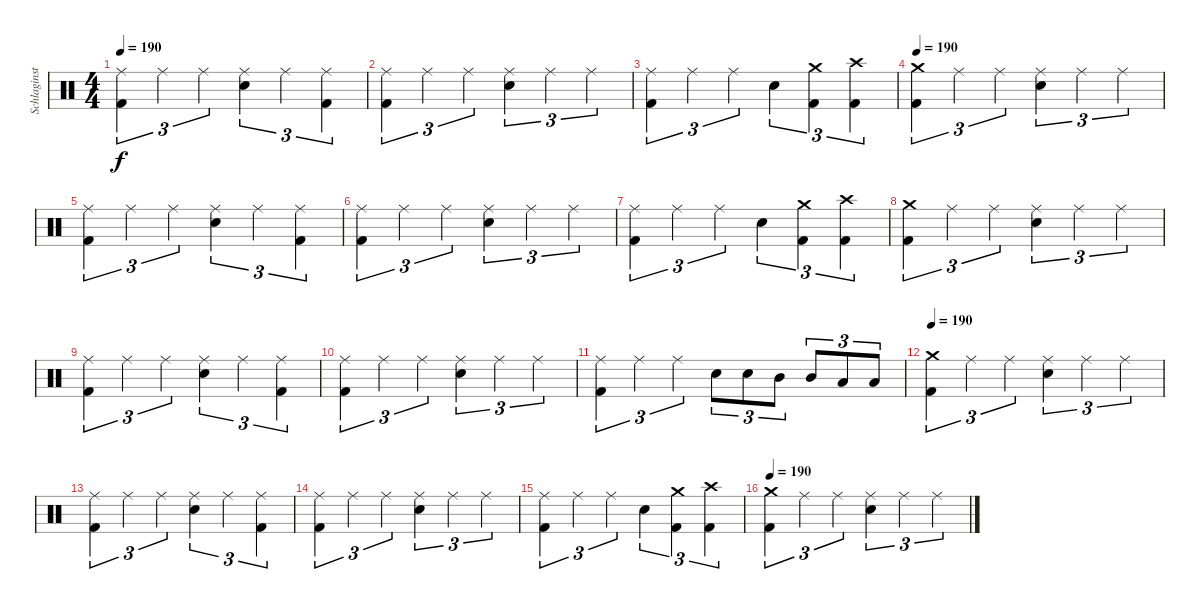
\track ("Schlaginstrumente - Auswahl" "Schlaginst") {instrument percussion}
\staff {score}
\articulation defaults
\ts (4 4)
\tempo 190
\clef neutral
\ks c
("Ride (middle)" "Kick (hit) 2").4{tu (3 2) dy f} "Ride (middle)".4{tu (3 2)} "Ride (middle)".4{tu (3 2)} ("Ride (middle)" "Electric Snare (hit)").4{tu (3 2)} "Ride (middle)".4{tu (3 2)} ("Ride (middle)" "Kick (hit) 2").4{tu (3 2)} |
("Ride (middle)" "Kick (hit) 2").4{tu (3 2)} "Ride (middle)".4{tu (3 2)} "Ride (middle)".4{tu (3 2)} ("Ride (middle)" "Electric Snare (hit)").4{tu (3 2)} "Ride (middle)".4{tu (3 2)} "Ride (middle)".4{tu (3 2)} |
("Ride (middle)" "Kick (hit) 2").4{tu (3 2)} "Ride (middle)".4{tu (3 2)} "Ride (middle)".4{tu (3 2)} "Electric Snare (hit)".4{tu (3 2)} ("Crash medium (hit)" "Kick (hit) 2").4{tu (3 2)} ("Crash high (hit)" "Kick (hit) 2").4{tu (3 2)} |
\tempo 190
("Crash medium (hit)" "Kick (hit) 2").4{tu (3 2)} "Ride (middle)".4{tu (3 2)} "Ride (middle)".4{tu (3 2)} ("Ride (middle)" "Electric Snare (hit)").4{tu (3 2)} "Ride (middle)".4{tu (3 2)} "Ride (middle)".4{tu (3 2)} |
("Ride (middle)" "Kick (hit) 2").4{tu (3 2)} "Ride (middle)".4{tu (3 2)} "Ride (middle)".4{tu (3 2)} ("Ride (middle)" "Electric Snare (hit)").4{tu (3 2)} "Ride (middle)".4{tu (3 2)} ("Ride (middle)" "Kick (hit) 2").4{tu (3 2)} |
("Ride (middle)" "Kick (hit) 2").4{tu (3 2)} "Ride (middle)".4{tu (3 2)} "Ride (middle)".4{tu (3 2)} ("Ride (middle)" "Electric Snare (hit)").4{tu (3 2)} "Ride (middle)".4{tu (3 2)} "Ride (middle)".4{tu (3 2)} |
("Ride (middle)" "Kick (hit) 2").4{tu (3 2)} "Ride (middle)".4{tu (3 2)} "Ride (middle)".4{tu (3 2)} "Electric Snare (hit)".4{tu (3 2)} ("Crash medium (hit)" "Kick (hit) 2").4{tu (3 2)} ("Crash high (hit)" "Kick (hit) 2").4{tu (3 2)} |
("Crash medium (hit)" "Kick (hit) 2").4{tu (3 2)} "Ride (middle)".4{tu (3 2)} "Ride (middle)".4{tu (3 2)} ("Ride (middle)" "Electric Snare (hit)").4{tu (3 2)} "Ride (middle)".4{tu (3 2)} "Ride (middle)".4{tu (3 2)} |
("Ride (middle)" "Kick (hit) 2").4{tu (3 2)} "Ride (middle)".4{tu (3 2)} "Ride (middle)".4{tu (3 2)} ("Ride (middle)" "Electric Snare (hit)").4{tu (3 2)} "Ride (middle)".4{tu (3 2)} ("Ride (middle)" "Kick (hit) 2").4{tu (3 2)} |
("Ride (middle)" "Kick (hit) 2").4{tu (3 2)} "Ride (middle)".4{tu (3 2)} "Ride (middle)".4{tu (3 2)} ("Ride (middle)" "Electric Snare (hit)").4{tu (3 2)} "Ride (middle)".4{tu (3 2)} "Ride (middle)".4{tu (3 2)} |
("Ride (middle)" "Kick (hit) 2").4{tu (3 2)} "Ride (middle)".4{tu (3 2)} "Ride (middle)".4{tu (3 2)} "Electric Snare (hit)".8{tu (3 2)} "Electric Snare (hit)".8{tu (3 2)} "Mid Tom (hit)".8{tu (3 2)} "Mid Tom (hit)".8{tu (3 2)} "Low Tom (hit)".8{tu (3 2)} "Low Tom (hit)".8{tu (3 2)} |
\tempo 190
("Crash medium (hit)" "Kick (hit) 2").4{tu (3 2)} "Ride (middle)".4{tu (3 2)} "Ride (middle)".4{tu (3 2)} ("Ride (middle)" "Electric Snare (hit)").4{tu (3 2)} "Ride (middle)".4{tu (3 2)} "Ride (middle)".4{tu (3 2)} |
("Ride (middle)" "Kick (hit) 2").4{tu (3 2)} "Ride (middle)".4{tu (3 2)} "Ride (middle)".4{tu (3 2)} ("Ride (middle)" "Electric Snare (hit)").4{tu (3 2)} "Ride (middle)".4{tu (3 2)} ("Ride (middle)" "Kick (hit) 2").4{tu (3 2)} |
("Ride (middle)" "Kick (hit) 2").4{tu (3 2)} "Ride (middle)".4{tu (3 2)} "Ride (middle)".4{tu (3 2)} ("Ride (middle)" "Electric Snare (hit)").4{tu (3 2)} "Ride (middle)".4{tu (3 2)} "Ride (middle)".4{tu (3 2)} |
("Ride (middle)" "Kick (hit) 2").4{tu (3 2)} "Ride (middle)".4{tu (3 2)} "Ride (middle)".4{tu (3 2)} "Electric Snare (hit)".4{tu (3 2)} ("Crash medium (hit)" "Kick (hit) 2").4{tu (3 2)} ("Crash high (hit)" "Kick (hit) 2").4{tu (3 2)} |
\tempo 190
("Crash medium (hit)" "Kick (hit) 2").4{tu (3 2)} "Ride (middle)".4{tu (3 2)} "Ride (middle)".4{tu (3 2)} ("Ride (middle)" "Electric Snare (hit)").4{tu (3 2)} "Ride (middle)".4{tu (3 2)} "Ride (middle)".4{tu (3 2)}
